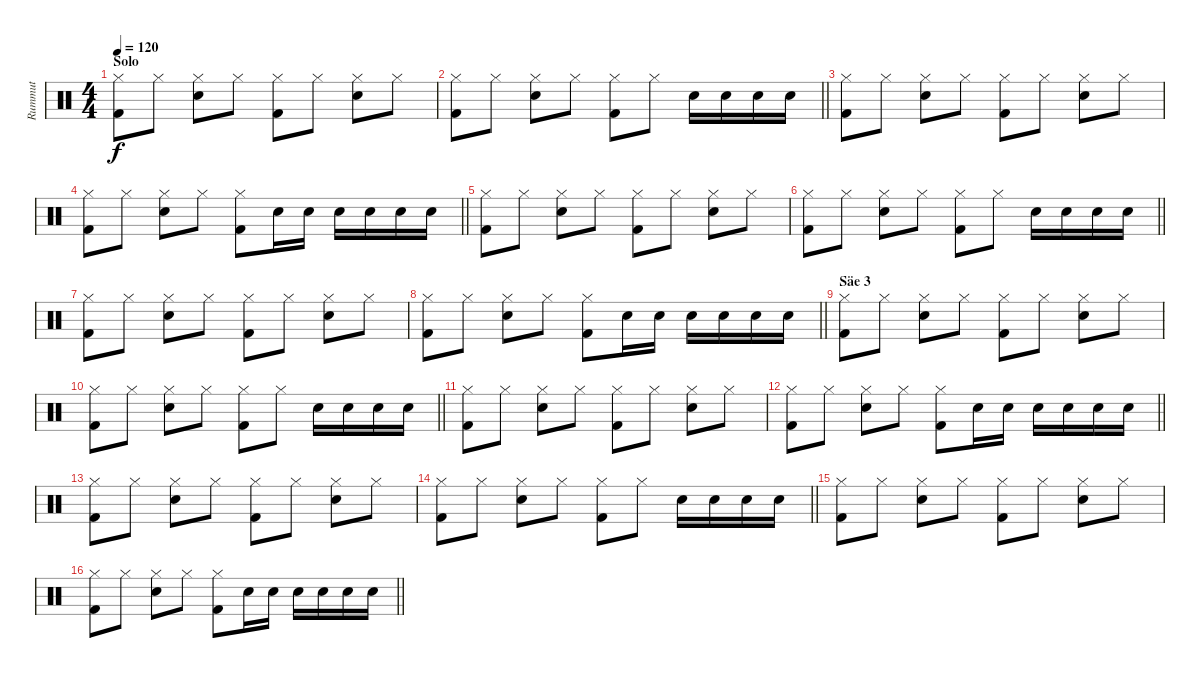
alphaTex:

\track ("Rummut" "Rummut") {instrument percussion}
\staff {score}
\articulation defaults
\ts (4 4)
\section ("" "Solo")
\tempo 120
\clef neutral
\ks c
("Hi-Hat (closed)" "Kick (hit) 2").8{dy f} "Hi-Hat (closed)".8 ("Hi-Hat (closed)" "Electric Snare (hit)").8 "Hi-Hat (closed)".8 ("Hi-Hat (closed)" "Kick (hit) 2").8 "Hi-Hat (closed)".8 ("Hi-Hat (closed)" "Electric Snare (hit)").8 "Hi-Hat (closed)".8 |
\barLineRight lightlight
("Hi-Hat (closed)" "Kick (hit) 2").8 "Hi-Hat (closed)".8 ("Hi-Hat (closed)" "Electric Snare (hit)").8 "Hi-Hat (closed)".8 ("Hi-Hat (closed)" "Kick (hit) 2").8 "Hi-Hat (closed)".8 "Electric Snare (hit)".16 "Electric Snare (hit)".16 "Electric Snare (hit)".16 "Electric Snare (hit)".16 |
("Hi-Hat (closed)" "Kick (hit) 2").8 "Hi-Hat (closed)".8 ("Hi-Hat (closed)" "Electric Snare (hit)").8 "Hi-Hat (closed)".8 ("Hi-Hat (closed)" "Kick (hit) 2").8 "Hi-Hat (closed)".8 ("Hi-Hat (closed)" "Electric Snare (hit)").8 "Hi-Hat (closed)".8 |
\barLineRight lightlight
("Hi-Hat (closed)" "Kick (hit) 2").8 "Hi-Hat (closed)".8 ("Hi-Hat (closed)" "Electric Snare (hit)").8 "Hi-Hat (closed)".8 ("Hi-Hat (closed)" "Kick (hit) 2").8 "Electric Snare (hit)".16 "Electric Snare (hit)".16 "Electric Snare (hit)".16 "Electric Snare (hit)".16 "Electric Snare (hit)".16 "Electric Snare (hit)".16 |
("Hi-Hat (closed)" "Kick (hit) 2").8 "Hi-Hat (closed)".8 ("Hi-Hat (closed)" "Electric Snare (hit)").8 "Hi-Hat (closed)".8 ("Hi-Hat (closed)" "Kick (hit) 2").8 "Hi-Hat (closed)".8 ("Hi-Hat (closed)" "Electric Snare (hit)").8 "Hi-Hat (closed)".8 |
\barLineRight lightlight
("Hi-Hat (closed)" "Kick (hit) 2").8 "Hi-Hat (closed)".8 ("Hi-Hat (closed)" "Electric Snare (hit)").8 "Hi-Hat (closed)".8 ("Hi-Hat (closed)" "Kick (hit) 2").8 "Hi-Hat (closed)".8 "Electric Snare (hit)".16 "Electric Snare (hit)".16 "Electric Snare (hit)".16 "Electric Snare (hit)".16 |
("Hi-Hat (closed)" "Kick (hit) 2").8 "Hi-Hat (closed)".8 ("Hi-Hat (closed)" "Electric Snare (hit)").8 "Hi-Hat (closed)".8 ("Hi-Hat (closed)" "Kick (hit) 2").8 "Hi-Hat (closed)".8 ("Hi-Hat (closed)" "Electric Snare (hit)").8 "Hi-Hat (closed)".8 |
\barLineRight lightlight
("Hi-Hat (closed)" "Kick (hit) 2").8 "Hi-Hat (closed)".8 ("Hi-Hat (closed)" "Electric Snare (hit)").8 "Hi-Hat (closed)".8 ("Hi-Hat (closed)" "Kick (hit) 2").8 "Electric Snare (hit)".16 "Electric Snare (hit)".16 "Electric Snare (hit)".16 "Electric Snare (hit)".16 "Electric Snare (hit)".16 "Electric Snare (hit)".16 |
\section ("" "Säe 3")
("Hi-Hat (closed)" "Kick (hit) 2").8 "Hi-Hat (closed)".8 ("Hi-Hat (closed)" "Electric Snare (hit)").8 "Hi-Hat (closed)".8 ("Hi-Hat (closed)" "Kick (hit) 2").8 "Hi-Hat (closed)".8 ("Hi-Hat (closed)" "Electric Snare (hit)").8 "Hi-Hat (closed)".8 |
\barLineRight lightlight
("Hi-Hat (closed)" "Kick (hit) 2").8 "Hi-Hat (closed)".8 ("Hi-Hat (closed)" "Electric Snare (hit)").8 "Hi-Hat (closed)".8 ("Hi-Hat (closed)" "Kick (hit) 2").8 "Hi-Hat (closed)".8 "Electric Snare (hit)".16 "Electric Snare (hit)".16 "Electric Snare (hit)".16 "Electric Snare (hit)".16 |
("Hi-Hat (closed)" "Kick (hit) 2").8 "Hi-Hat (closed)".8 ("Hi-Hat (closed)" "Electric Snare (hit)").8 "Hi-Hat (closed)".8 ("Hi-Hat (closed)" "Kick (hit) 2").8 "Hi-Hat (closed)".8 ("Hi-Hat (closed)" "Electric Snare (hit)").8 "Hi-Hat (closed)".8 |
\barLineRight lightlight
("Hi-Hat (closed)" "Kick (hit) 2").8 "Hi-Hat (closed)".8 ("Hi-Hat (closed)" "Electric Snare (hit)").8 "Hi-Hat (closed)".8 ("Hi-Hat (closed)" "Kick (hit) 2").8 "Electric Snare (hit)".16 "Electric Snare (hit)".16 "Electric Snare (hit)".16 "Electric Snare (hit)".16 "Electric Snare (hit)".16 "Electric Snare (hit)".16 |
("Hi-Hat (closed)" "Kick (hit) 2").8 "Hi-Hat (closed)".8 ("Hi-Hat (closed)" "Electric Snare (hit)").8 "Hi-Hat (closed)".8 ("Hi-Hat (closed)" "Kick (hit) 2").8 "Hi-Hat (closed)".8 ("Hi-Hat (closed)" "Electric Snare (hit)").8 "Hi-Hat (closed)".8 |
\barLineRight lightlight
("Hi-Hat (closed)" "Kick (hit) 2").8 "Hi-Hat (closed)".8 ("Hi-Hat (closed)" "Electric Snare (hit)").8 "Hi-Hat (closed)".8 ("Hi-Hat (closed)" "Kick (hit) 2").8 "Hi-Hat (closed)".8 "Electric Snare (hit)".16 "Electric Snare (hit)".16 "Electric Snare (hit)".16 "Electric Snare (hit)".16 |
("Hi-Hat (closed)" "Kick (hit) 2").8 "Hi-Hat (closed)".8 ("Hi-Hat (closed)" "Electric Snare (hit)").8 "Hi-Hat (closed)".8 ("Hi-Hat (closed)" "Kick (hit) 2").8 "Hi-Hat (closed)".8 ("Hi-Hat (closed)" "Electric Snare (hit)").8 "Hi-Hat (closed)".8 |
\barLineRight lightlight
("Hi-Hat (closed)" "Kick (hit) 2").8 "Hi-Hat (closed)".8 ("Hi-Hat (closed)" "Electric Snare (hit)").8 "Hi-Hat (closed)".8 ("Hi-Hat (closed)" "Kick (hit) 2").8 "Electric Snare (hit)".16 "Electric Snare (hit)".16 "Electric Snare (hit)".16 "Electric Snare (hit)".16 "Electric Snare (hit)".16 "Electric Snare (hit)".16
